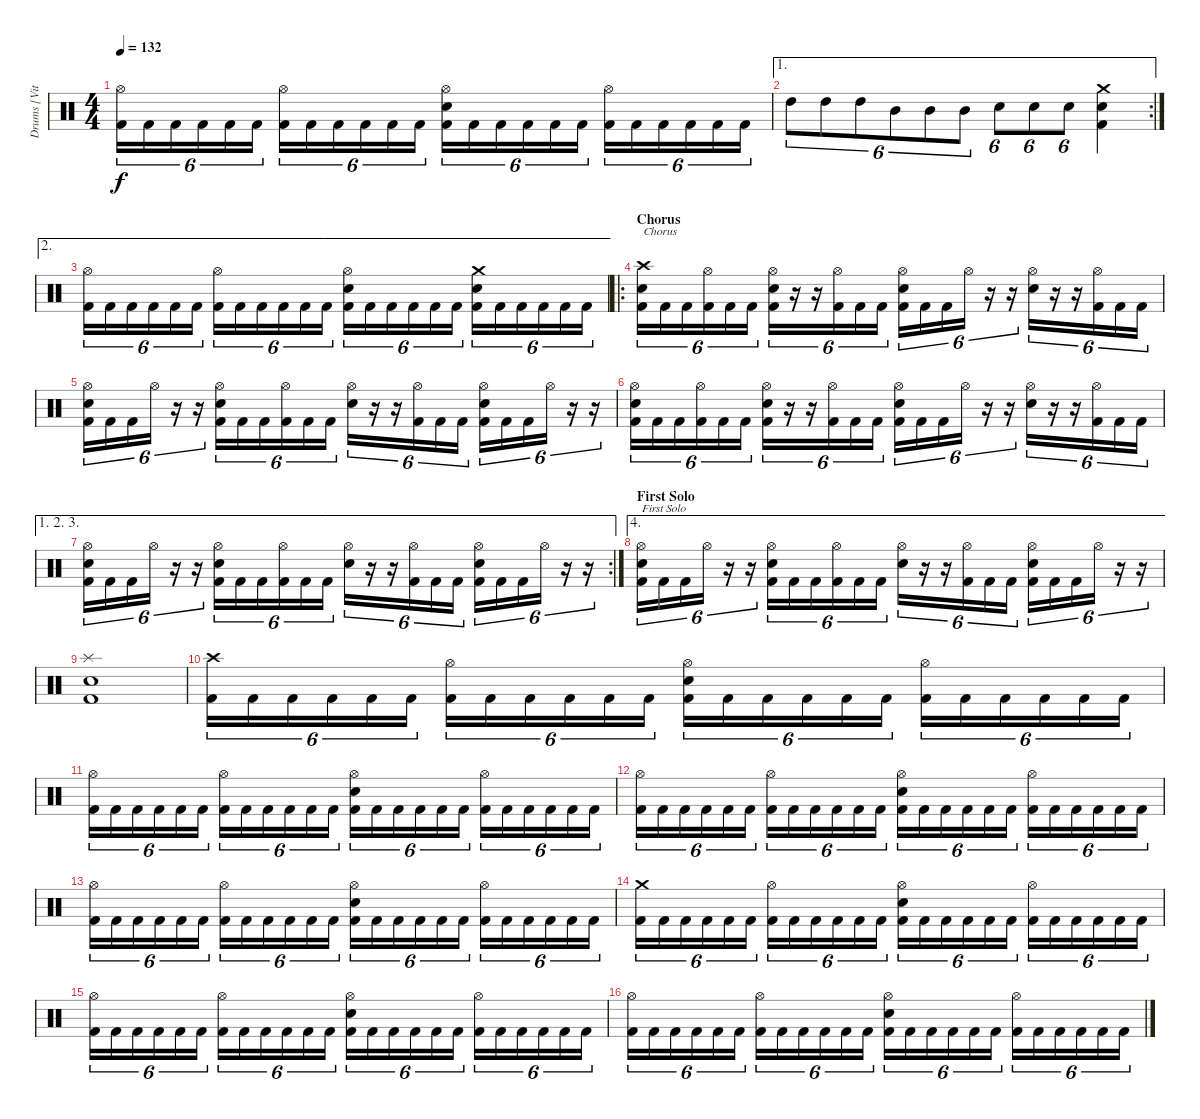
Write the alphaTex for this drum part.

\track ("Drums [Vitek]" "Drums [Vit") {instrument percussion}
\staff {score}
\articulation defaults
\ts (4 4)
\tempo 132
\clef neutral
\ks c
("Hi-Hat (open)" "Kick (hit) 2").16{tu (6 4) dy f} "Kick (hit) 2".16{tu (6 4)} "Kick (hit) 2".16{tu (6 4)} "Kick (hit) 2".16{tu (6 4)} "Kick (hit) 2".16{tu (6 4)} "Kick (hit) 2".16{tu (6 4)} ("Hi-Hat (open)" "Kick (hit) 2").16{tu (6 4)} "Kick (hit) 2".16{tu (6 4)} "Kick (hit) 2".16{tu (6 4)} "Kick (hit) 2".16{tu (6 4)} "Kick (hit) 2".16{tu (6 4)} "Kick (hit) 2".16{tu (6 4)} ("Hi-Hat (open)" "Electric Snare (hit)" "Kick (hit) 2").16{tu (6 4)} "Kick (hit) 2".16{tu (6 4)} "Kick (hit) 2".16{tu (6 4)} "Kick (hit) 2".16{tu (6 4)} "Kick (hit) 2".16{tu (6 4)} "Kick (hit) 2".16{tu (6 4)} ("Hi-Hat (open)" "Kick (hit) 2").16{tu (6 4)} "Kick (hit) 2".16{tu (6 4)} "Kick (hit) 2".16{tu (6 4)} "Kick (hit) 2".16{tu (6 4)} "Kick (hit) 2".16{tu (6 4)} "Kick (hit) 2".16{tu (6 4)} |
\ae 1
\rc 2 "High Tom (hit)".8{tu (6 4)} "High Tom (hit)".8{tu (6 4)} "High Tom (hit)".8{tu (6 4)} "Mid Tom (hit)".8{tu (6 4)} "Mid Tom (hit)".8{tu (6 4)} "Mid Tom (hit)".8{tu (6 4)} "Electric Snare (hit)".8{tu (6 4)} "Electric Snare (hit)".8{tu (6 4)} "Electric Snare (hit)".8{tu (6 4)}
("Crash medium (hit)" "Electric Snare (hit)" "Kick (hit) 2").4 |
\ae 2
("Hi-Hat (open)" "Kick (hit) 2").16{tu (6 4)} "Kick (hit) 2".16{tu (6 4)} "Kick (hit) 2".16{tu (6 4)} "Kick (hit) 2".16{tu (6 4)} "Kick (hit) 2".16{tu (6 4)} "Kick (hit) 2".16{tu (6 4)} ("Hi-Hat (open)" "Kick (hit) 2").16{tu (6 4)} "Kick (hit) 2".16{tu (6 4)} "Kick (hit) 2".16{tu (6 4)} "Kick (hit) 2".16{tu (6 4)} "Kick (hit) 2".16{tu (6 4)} "Kick (hit) 2".16{tu (6 4)} ("Hi-Hat (open)" "Electric Snare (hit)" "Kick (hit) 2").16{tu (6 4)} "Kick (hit) 2".16{tu (6 4)} "Kick (hit) 2".16{tu (6 4)} "Kick (hit) 2".16{tu (6 4)} "Kick (hit) 2".16{tu (6 4)} "Kick (hit) 2".16{tu (6 4)} ("Crash medium (hit)" "Electric Snare (hit)" "Kick (hit) 2").16{tu (6 4)} "Kick (hit) 2".16{tu (6 4)} "Kick (hit) 2".16{tu (6 4)} "Kick (hit) 2".16{tu (6 4)} "Kick (hit) 2".16{tu (6 4)} "Kick (hit) 2".16{tu (6 4)} |
\ro
\section ("" "Chorus")
("Crash high (hit)" "Electric Snare (hit)" "Kick (hit) 2").16{tu (6 4) txt "Chorus"} "Kick (hit) 2".16{tu (6 4)} "Kick (hit) 2".16{tu (6 4)} ("Hi-Hat (open)" "Kick (hit) 2").16{tu (6 4)} "Kick (hit) 2".16{tu (6 4)} "Kick (hit) 2".16{tu (6 4)} ("Hi-Hat (open)" "Electric Snare (hit)" "Kick (hit) 2").16{tu (6 4)} r.16{tu (6 4)} r.16{tu (6 4)} ("Hi-Hat (open)" "Kick (hit) 2").16{tu (6 4)} "Kick (hit) 2".16{tu (6 4)} "Kick (hit) 2".16{tu (6 4)} ("Hi-Hat (open)" "Electric Snare (hit)" "Kick (hit) 2").16{tu (6 4)} "Kick (hit) 2".16{tu (6 4)} "Kick (hit) 2".16{tu (6 4)} "Hi-Hat (open)".16{tu (6 4)} r.16{tu (6 4)} r.16{tu (6 4)} ("Hi-Hat (open)" "Electric Snare (hit)").16{tu (6 4)} r.16{tu (6 4)} r.16{tu (6 4)} ("Hi-Hat (open)" "Kick (hit) 2").16{tu (6 4)} "Kick (hit) 2".16{tu (6 4)} "Kick (hit) 2".16{tu (6 4)} |
("Hi-Hat (open)" "Electric Snare (hit)" "Kick (hit) 2").16{tu (6 4)} "Kick (hit) 2".16{tu (6 4)} "Kick (hit) 2".16{tu (6 4)} "Hi-Hat (open)".16{tu (6 4)} r.16{tu (6 4)} r.16{tu (6 4)} ("Hi-Hat (open)" "Electric Snare (hit)" "Kick (hit) 2").16{tu (6 4)} "Kick (hit) 2".16{tu (6 4)} "Kick (hit) 2".16{tu (6 4)} ("Hi-Hat (open)" "Kick (hit) 2").16{tu (6 4)} "Kick (hit) 2".16{tu (6 4)} "Kick (hit) 2".16{tu (6 4)} ("Hi-Hat (open)" "Electric Snare (hit)").16{tu (6 4)} r.16{tu (6 4)} r.16{tu (6 4)} ("Hi-Hat (open)" "Kick (hit) 2").16{tu (6 4)} "Kick (hit) 2".16{tu (6 4)} "Kick (hit) 2".16{tu (6 4)} ("Hi-Hat (open)" "Electric Snare (hit)" "Kick (hit) 2").16{tu (6 4)} "Kick (hit) 2".16{tu (6 4)} "Kick (hit) 2".16{tu (6 4)} "Hi-Hat (open)".16{tu (6 4)} r.16{tu (6 4)} r.16{tu (6 4)} |
("Hi-Hat (open)" "Electric Snare (hit)" "Kick (hit) 2").16{tu (6 4)} "Kick (hit) 2".16{tu (6 4)} "Kick (hit) 2".16{tu (6 4)} ("Hi-Hat (open)" "Kick (hit) 2").16{tu (6 4)} "Kick (hit) 2".16{tu (6 4)} "Kick (hit) 2".16{tu (6 4)} ("Hi-Hat (open)" "Electric Snare (hit)" "Kick (hit) 2").16{tu (6 4)} r.16{tu (6 4)} r.16{tu (6 4)} ("Hi-Hat (open)" "Kick (hit) 2").16{tu (6 4)} "Kick (hit) 2".16{tu (6 4)} "Kick (hit) 2".16{tu (6 4)} ("Hi-Hat (open)" "Electric Snare (hit)" "Kick (hit) 2").16{tu (6 4)} "Kick (hit) 2".16{tu (6 4)} "Kick (hit) 2".16{tu (6 4)} "Hi-Hat (open)".16{tu (6 4)} r.16{tu (6 4)} r.16{tu (6 4)} ("Hi-Hat (open)" "Electric Snare (hit)").16{tu (6 4)} r.16{tu (6 4)} r.16{tu (6 4)} ("Hi-Hat (open)" "Kick (hit) 2").16{tu (6 4)} "Kick (hit) 2".16{tu (6 4)} "Kick (hit) 2".16{tu (6 4)} |
\ae (1 2 3)
\rc 2
("Hi-Hat (open)" "Electric Snare (hit)" "Kick (hit) 2").16{tu (6 4)} "Kick (hit) 2".16{tu (6 4)} "Kick (hit) 2".16{tu (6 4)} "Hi-Hat (open)".16{tu (6 4)} r.16{tu (6 4)} r.16{tu (6 4)} ("Hi-Hat (open)" "Electric Snare (hit)" "Kick (hit) 2").16{tu (6 4)} "Kick (hit) 2".16{tu (6 4)} "Kick (hit) 2".16{tu (6 4)} ("Hi-Hat (open)" "Kick (hit) 2").16{tu (6 4)} "Kick (hit) 2".16{tu (6 4)} "Kick (hit) 2".16{tu (6 4)} ("Hi-Hat (open)" "Electric Snare (hit)").16{tu (6 4)} r.16{tu (6 4)} r.16{tu (6 4)} ("Hi-Hat (open)" "Kick (hit) 2").16{tu (6 4)} "Kick (hit) 2".16{tu (6 4)} "Kick (hit) 2".16{tu (6 4)} ("Hi-Hat (open)" "Electric Snare (hit)" "Kick (hit) 2").16{tu (6 4)} "Kick (hit) 2".16{tu (6 4)} "Kick (hit) 2".16{tu (6 4)} "Hi-Hat (open)".16{tu (6 4)} r.16{tu (6 4)} r.16{tu (6 4)} |
\ae 4
\section ("" "First Solo")
("Hi-Hat (open)" "Electric Snare (hit)" "Kick (hit) 2").16{tu (6 4) txt "First Solo"} "Kick (hit) 2".16{tu (6 4)} "Kick (hit) 2".16{tu (6 4)} "Hi-Hat (open)".16{tu (6 4)} r.16{tu (6 4)} r.16{tu (6 4)} ("Hi-Hat (open)" "Electric Snare (hit)" "Kick (hit) 2").16{tu (6 4)} "Kick (hit) 2".16{tu (6 4)} "Kick (hit) 2".16{tu (6 4)} ("Hi-Hat (open)" "Kick (hit) 2").16{tu (6 4)} "Kick (hit) 2".16{tu (6 4)} "Kick (hit) 2".16{tu (6 4)} ("Hi-Hat (open)" "Electric Snare (hit)").16{tu (6 4)} r.16{tu (6 4)} r.16{tu (6 4)} ("Hi-Hat (open)" "Kick (hit) 2").16{tu (6 4)} "Kick (hit) 2".16{tu (6 4)} "Kick (hit) 2".16{tu (6 4)} ("Hi-Hat (open)" "Electric Snare (hit)" "Kick (hit) 2").16{tu (6 4)} "Kick (hit) 2".16{tu (6 4)} "Kick (hit) 2".16{tu (6 4)} "Hi-Hat (open)".16{tu (6 4)} r.16{tu (6 4)} r.16{tu (6 4)} |
("Splash (hit)" "Electric Snare (hit)" "Kick (hit) 2").1 |
("Crash high (hit)" "Kick (hit) 2").16{tu (6 4)} "Kick (hit) 2".16{tu (6 4)} "Kick (hit) 2".16{tu (6 4)} "Kick (hit) 2".16{tu (6 4)} "Kick (hit) 2".16{tu (6 4)} "Kick (hit) 2".16{tu (6 4)} ("Hi-Hat (open)" "Kick (hit) 2").16{tu (6 4)} "Kick (hit) 2".16{tu (6 4)} "Kick (hit) 2".16{tu (6 4)} "Kick (hit) 2".16{tu (6 4)} "Kick (hit) 2".16{tu (6 4)} "Kick (hit) 2".16{tu (6 4)} ("Hi-Hat (open)" "Electric Snare (hit)" "Kick (hit) 2").16{tu (6 4)} "Kick (hit) 2".16{tu (6 4)} "Kick (hit) 2".16{tu (6 4)} "Kick (hit) 2".16{tu (6 4)} "Kick (hit) 2".16{tu (6 4)} "Kick (hit) 2".16{tu (6 4)} ("Hi-Hat (open)" "Kick (hit) 2").16{tu (6 4)} "Kick (hit) 2".16{tu (6 4)} "Kick (hit) 2".16{tu (6 4)} "Kick (hit) 2".16{tu (6 4)} "Kick (hit) 2".16{tu (6 4)} "Kick (hit) 2".16{tu (6 4)} |
("Hi-Hat (open)" "Kick (hit) 2").16{tu (6 4)} "Kick (hit) 2".16{tu (6 4)} "Kick (hit) 2".16{tu (6 4)} "Kick (hit) 2".16{tu (6 4)} "Kick (hit) 2".16{tu (6 4)} "Kick (hit) 2".16{tu (6 4)} ("Hi-Hat (open)" "Kick (hit) 2").16{tu (6 4)} "Kick (hit) 2".16{tu (6 4)} "Kick (hit) 2".16{tu (6 4)} "Kick (hit) 2".16{tu (6 4)} "Kick (hit) 2".16{tu (6 4)} "Kick (hit) 2".16{tu (6 4)} ("Hi-Hat (open)" "Electric Snare (hit)" "Kick (hit) 2").16{tu (6 4)} "Kick (hit) 2".16{tu (6 4)} "Kick (hit) 2".16{tu (6 4)} "Kick (hit) 2".16{tu (6 4)} "Kick (hit) 2".16{tu (6 4)} "Kick (hit) 2".16{tu (6 4)} ("Hi-Hat (open)" "Kick (hit) 2").16{tu (6 4)} "Kick (hit) 2".16{tu (6 4)} "Kick (hit) 2".16{tu (6 4)} "Kick (hit) 2".16{tu (6 4)} "Kick (hit) 2".16{tu (6 4)} "Kick (hit) 2".16{tu (6 4)} |
("Hi-Hat (open)" "Kick (hit) 2").16{tu (6 4)} "Kick (hit) 2".16{tu (6 4)} "Kick (hit) 2".16{tu (6 4)} "Kick (hit) 2".16{tu (6 4)} "Kick (hit) 2".16{tu (6 4)} "Kick (hit) 2".16{tu (6 4)} ("Hi-Hat (open)" "Kick (hit) 2").16{tu (6 4)} "Kick (hit) 2".16{tu (6 4)} "Kick (hit) 2".16{tu (6 4)} "Kick (hit) 2".16{tu (6 4)} "Kick (hit) 2".16{tu (6 4)} "Kick (hit) 2".16{tu (6 4)} ("Hi-Hat (open)" "Electric Snare (hit)" "Kick (hit) 2").16{tu (6 4)} "Kick (hit) 2".16{tu (6 4)} "Kick (hit) 2".16{tu (6 4)} "Kick (hit) 2".16{tu (6 4)} "Kick (hit) 2".16{tu (6 4)} "Kick (hit) 2".16{tu (6 4)} ("Hi-Hat (open)" "Kick (hit) 2").16{tu (6 4)} "Kick (hit) 2".16{tu (6 4)} "Kick (hit) 2".16{tu (6 4)} "Kick (hit) 2".16{tu (6 4)} "Kick (hit) 2".16{tu (6 4)} "Kick (hit) 2".16{tu (6 4)} |
("Hi-Hat (open)" "Kick (hit) 2").16{tu (6 4)} "Kick (hit) 2".16{tu (6 4)} "Kick (hit) 2".16{tu (6 4)} "Kick (hit) 2".16{tu (6 4)} "Kick (hit) 2".16{tu (6 4)} "Kick (hit) 2".16{tu (6 4)} ("Hi-Hat (open)" "Kick (hit) 2").16{tu (6 4)} "Kick (hit) 2".16{tu (6 4)} "Kick (hit) 2".16{tu (6 4)} "Kick (hit) 2".16{tu (6 4)} "Kick (hit) 2".16{tu (6 4)} "Kick (hit) 2".16{tu (6 4)} ("Hi-Hat (open)" "Electric Snare (hit)" "Kick (hit) 2").16{tu (6 4)} "Kick (hit) 2".16{tu (6 4)} "Kick (hit) 2".16{tu (6 4)} "Kick (hit) 2".16{tu (6 4)} "Kick (hit) 2".16{tu (6 4)} "Kick (hit) 2".16{tu (6 4)} ("Hi-Hat (open)" "Kick (hit) 2").16{tu (6 4)} "Kick (hit) 2".16{tu (6 4)} "Kick (hit) 2".16{tu (6 4)} "Kick (hit) 2".16{tu (6 4)} "Kick (hit) 2".16{tu (6 4)} "Kick (hit) 2".16{tu (6 4)} |
("Crash medium (hit)" "Kick (hit) 2").16{tu (6 4)} "Kick (hit) 2".16{tu (6 4)} "Kick (hit) 2".16{tu (6 4)} "Kick (hit) 2".16{tu (6 4)} "Kick (hit) 2".16{tu (6 4)} "Kick (hit) 2".16{tu (6 4)} ("Hi-Hat (open)" "Kick (hit) 2").16{tu (6 4)} "Kick (hit) 2".16{tu (6 4)} "Kick (hit) 2".16{tu (6 4)} "Kick (hit) 2".16{tu (6 4)} "Kick (hit) 2".16{tu (6 4)} "Kick (hit) 2".16{tu (6 4)} ("Hi-Hat (open)" "Electric Snare (hit)" "Kick (hit) 2").16{tu (6 4)} "Kick (hit) 2".16{tu (6 4)} "Kick (hit) 2".16{tu (6 4)} "Kick (hit) 2".16{tu (6 4)} "Kick (hit) 2".16{tu (6 4)} "Kick (hit) 2".16{tu (6 4)} ("Hi-Hat (open)" "Kick (hit) 2").16{tu (6 4)} "Kick (hit) 2".16{tu (6 4)} "Kick (hit) 2".16{tu (6 4)} "Kick (hit) 2".16{tu (6 4)} "Kick (hit) 2".16{tu (6 4)} "Kick (hit) 2".16{tu (6 4)} |
("Hi-Hat (open)" "Kick (hit) 2").16{tu (6 4)} "Kick (hit) 2".16{tu (6 4)} "Kick (hit) 2".16{tu (6 4)} "Kick (hit) 2".16{tu (6 4)} "Kick (hit) 2".16{tu (6 4)} "Kick (hit) 2".16{tu (6 4)} ("Hi-Hat (open)" "Kick (hit) 2").16{tu (6 4)} "Kick (hit) 2".16{tu (6 4)} "Kick (hit) 2".16{tu (6 4)} "Kick (hit) 2".16{tu (6 4)} "Kick (hit) 2".16{tu (6 4)} "Kick (hit) 2".16{tu (6 4)} ("Hi-Hat (open)" "Electric Snare (hit)" "Kick (hit) 2").16{tu (6 4)} "Kick (hit) 2".16{tu (6 4)} "Kick (hit) 2".16{tu (6 4)} "Kick (hit) 2".16{tu (6 4)} "Kick (hit) 2".16{tu (6 4)} "Kick (hit) 2".16{tu (6 4)} ("Hi-Hat (open)" "Kick (hit) 2").16{tu (6 4)} "Kick (hit) 2".16{tu (6 4)} "Kick (hit) 2".16{tu (6 4)} "Kick (hit) 2".16{tu (6 4)} "Kick (hit) 2".16{tu (6 4)} "Kick (hit) 2".16{tu (6 4)} |
("Hi-Hat (open)" "Kick (hit) 2").16{tu (6 4)} "Kick (hit) 2".16{tu (6 4)} "Kick (hit) 2".16{tu (6 4)} "Kick (hit) 2".16{tu (6 4)} "Kick (hit) 2".16{tu (6 4)} "Kick (hit) 2".16{tu (6 4)} ("Hi-Hat (open)" "Kick (hit) 2").16{tu (6 4)} "Kick (hit) 2".16{tu (6 4)} "Kick (hit) 2".16{tu (6 4)} "Kick (hit) 2".16{tu (6 4)} "Kick (hit) 2".16{tu (6 4)} "Kick (hit) 2".16{tu (6 4)} ("Hi-Hat (open)" "Electric Snare (hit)" "Kick (hit) 2").16{tu (6 4)} "Kick (hit) 2".16{tu (6 4)} "Kick (hit) 2".16{tu (6 4)} "Kick (hit) 2".16{tu (6 4)} "Kick (hit) 2".16{tu (6 4)} "Kick (hit) 2".16{tu (6 4)} ("Hi-Hat (open)" "Kick (hit) 2").16{tu (6 4)} "Kick (hit) 2".16{tu (6 4)} "Kick (hit) 2".16{tu (6 4)} "Kick (hit) 2".16{tu (6 4)} "Kick (hit) 2".16{tu (6 4)} "Kick (hit) 2".16{tu (6 4)}
